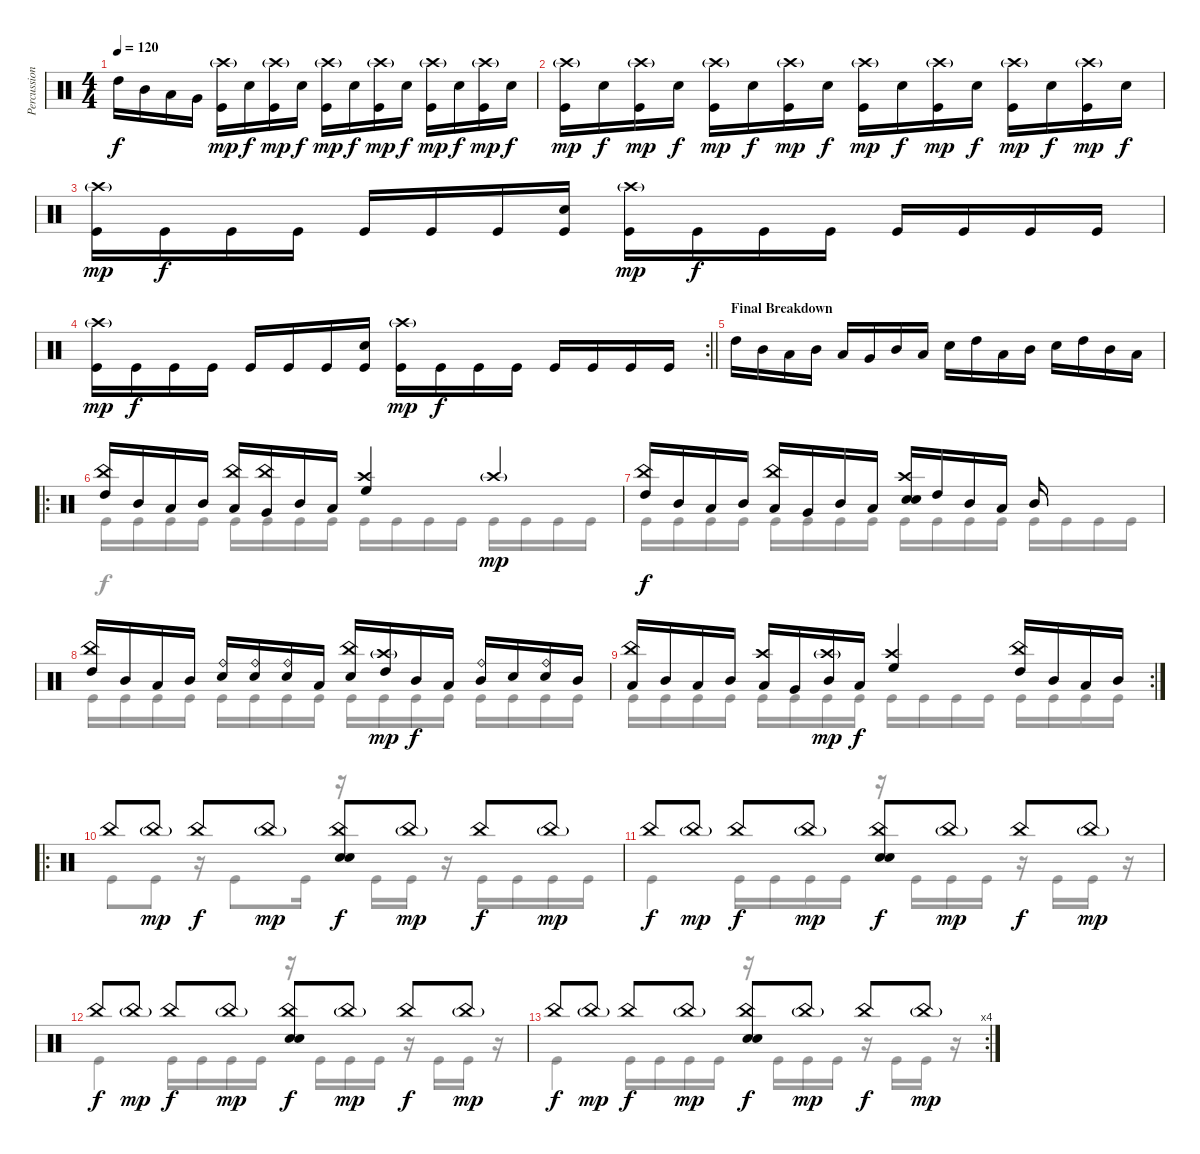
\track ("Percussion" "Percussion") {instrument percussion}
\staff {score}
\articulation defaults
\voice
\ts (4 4)
\tempo 120
\clef neutral
\ks c "High Tom (hit)".16{dy f} "Mid Tom (hit)".16 "Low Tom (hit)".16 "Very Low Tom (hit)".16
("Crash high (hit)"{g} "Kick (hit)").16{dy mp} "Electric Snare (hit)".16{dy f} ("Crash high (hit)"{g} "Kick (hit)").16{dy mp} "Electric Snare (hit)".16{dy f} ("Crash high (hit)"{g} "Kick (hit)").16{dy mp} "Electric Snare (hit)".16{dy f} ("Crash high (hit)"{g} "Kick (hit)").16{dy mp} "Electric Snare (hit)".16{dy f} ("Crash high (hit)"{g} "Kick (hit)").16{dy mp} "Electric Snare (hit)".16{dy f} ("Crash high (hit)"{g} "Kick (hit)").16{dy mp} "Electric Snare (hit)".16{dy f} |
("Crash high (hit)"{g} "Kick (hit)").16{dy mp} "Electric Snare (hit)".16{dy f} ("Crash high (hit)"{g} "Kick (hit)").16{dy mp} "Electric Snare (hit)".16{dy f} ("Crash high (hit)"{g} "Kick (hit)").16{dy mp} "Electric Snare (hit)".16{dy f} ("Crash high (hit)"{g} "Kick (hit)").16{dy mp} "Electric Snare (hit)".16{dy f} ("Crash high (hit)"{g} "Kick (hit)").16{dy mp} "Electric Snare (hit)".16{dy f} ("Crash high (hit)"{g} "Kick (hit)").16{dy mp} "Electric Snare (hit)".16{dy f} ("Crash high (hit)"{g} "Kick (hit)").16{dy mp} "Electric Snare (hit)".16{dy f} ("Crash high (hit)"{g} "Kick (hit)").16{dy mp} "Electric Snare (hit)".16{dy f} |
("Crash high (hit)"{g} "Kick (hit)").16{dy mp} "Kick (hit)".16{dy f} "Kick (hit)".16 "Kick (hit)".16 "Kick (hit)".16 "Kick (hit)".16 "Kick (hit)".16 ("Electric Snare (hit)" "Kick (hit)").16 ("Crash high (hit)"{g} "Kick (hit)").16{dy mp} "Kick (hit)".16{dy f} "Kick (hit)".16 "Kick (hit)".16 "Kick (hit)".16 "Kick (hit)".16 "Kick (hit)".16 "Kick (hit)".16 |
\rc 2
\barLineRight lightlight
("Crash high (hit)"{g} "Kick (hit)").16{dy mp} "Kick (hit)".16{dy f} "Kick (hit)".16 "Kick (hit)".16 "Kick (hit)".16 "Kick (hit)".16 "Kick (hit)".16 ("Electric Snare (hit)" "Kick (hit)").16 ("Crash high (hit)"{g} "Kick (hit)").16{dy mp} "Kick (hit)".16{dy f} "Kick (hit)".16 "Kick (hit)".16 "Kick (hit)".16 "Kick (hit)".16 "Kick (hit)".16 "Kick (hit)".16 |
\section ("" "Final Breakdown")
"High Tom (hit)".16 "Mid Tom (hit)".16 "Low Tom (hit)".16 "Mid Tom (hit)".16 "Low Tom (hit)".16 "Very Low Tom (hit)".16 "Mid Tom (hit)".16 "Low Tom (hit)".16 "Electric Snare (hit)".16 "High Tom (hit)".16 "Low Tom (hit)".16 "Mid Tom (hit)".16 "Electric Snare (hit)".16 "High Tom (hit)".16 "Mid Tom (hit)".16 "Low Tom (hit)".16 |
\ro
("China (hit)" "High Tom (hit)").16 "Mid Tom (hit)".16 "Low Tom (hit)".16 "Mid Tom (hit)".16 ("China (hit)" "Low Tom (hit)").16 ("China (hit)" "Very Low Tom (hit)").16 "Mid Tom (hit)".16 "Low Tom (hit)".16 ("Crash high (hit)" "High Floor Tom (hit)").4 "Crash high (hit)"{g}.4{dy mp} |
("China (hit)" "High Tom (hit)").16{dy f} "Mid Tom (hit)".16 "Low Tom (hit)".16 "Mid Tom (hit)".16 ("China (hit)" "Low Tom (hit)").16 "Very Low Tom (hit)".16 "Mid Tom (hit)".16 "Low Tom (hit)".16 ("Crash high (hit)" "Electric Snare (hit)" "Electric Snare (hit)").16 "High Tom (hit)".16 "Mid Tom (hit)".16 "Low Tom (hit)".16 "Mid Tom (hit)".16 |
("China (hit)" "High Tom (hit)").16 "Mid Tom (hit)".16 "Low Tom (hit)".16 "Mid Tom (hit)".16 ("Ride (bell)" "Electric Snare (hit)").16 ("Ride (bell)" "Electric Snare (hit)").16 ("Ride (bell)" "Electric Snare (hit)").16 "Low Tom (hit)".16 ("China (hit)" "Electric Snare (hit)").16 ("Crash high (hit)"{g} "High Tom (hit)").16{dy mp} "Mid Tom (hit)".16{dy f} "Low Tom (hit)".16 ("Ride (bell)" "Mid Tom (hit)").16 "Electric Snare (hit)".16 ("Ride (bell)" "Electric Snare (hit)").16 "Mid Tom (hit)".16 |
\rc 2
("China (hit)" "Low Tom (hit)").16 "Mid Tom (hit)".16 "Low Tom (hit)".16 "Mid Tom (hit)".16 ("Crash high (hit)" "Low Tom (hit)").16 "Very Low Tom (hit)".16 ("Crash high (hit)"{g} "Mid Tom (hit)").16{dy mp} "Low Tom (hit)".16{dy f} ("Crash high (hit)" "High Floor Tom (hit)").4 ("China (hit)" "High Tom (hit)").16 "Mid Tom (hit)".16 "Low Tom (hit)".16 "Mid Tom (hit)".16 |
\ro "China (hit)".8 "China (hit)"{g}.8{dy mp} "China (hit)".8{dy f} "China (hit)"{g}.8{dy mp}
("China (hit)" "Electric Snare (hit)" "Electric Snare (hit)").8{dy f} "China (hit)"{g}.8{dy mp} "China (hit)".8{dy f} "China (hit)"{g}.8{dy mp} |
"China (hit)".8{dy f} "China (hit)"{g}.8{dy mp} "China (hit)".8{dy f} "China (hit)"{g}.8{dy mp} ("China (hit)" "Electric Snare (hit)" "Electric Snare (hit)").8{dy f} "China (hit)"{g}.8{dy mp} "China (hit)".8{dy f} "China (hit)"{g}.8{dy mp} |
"China (hit)".8{dy f} "China (hit)"{g}.8{dy mp} "China (hit)".8{dy f} "China (hit)"{g}.8{dy mp} ("China (hit)" "Electric Snare (hit)" "Electric Snare (hit)").8{dy f} "China (hit)"{g}.8{dy mp} "China (hit)".8{dy f} "China (hit)"{g}.8{dy mp} |
\rc 4 "China (hit)".8{dy f} "China (hit)"{g}.8{dy mp} "China (hit)".8{dy f} "China (hit)"{g}.8{dy mp}
("China (hit)" "Electric Snare (hit)" "Electric Snare (hit)").8{dy f} "China (hit)"{g}.8{dy mp} "China (hit)".8{dy f} "China (hit)"{g}.8{dy mp} |
\voice
\clef neutral
\ottava regular
\simile none
\ks c
|
|
|
\barLineRight lightlight
|
|
"Kick (hit)".16{dy f} "Kick (hit)".16 "Kick (hit)".16 "Kick (hit)".16 "Kick (hit)".16 "Kick (hit)".16 "Kick (hit)".16 "Kick (hit)".16 "Kick (hit)".16 "Kick (hit)".16 "Kick (hit)".16 "Kick (hit)".16 "Kick (hit)".16 "Kick (hit)".16 "Kick (hit)".16 "Kick (hit)".16 |
"Kick (hit)".16 "Kick (hit)".16 "Kick (hit)".16 "Kick (hit)".16 "Kick (hit)".16 "Kick (hit)".16 "Kick (hit)".16 "Kick (hit)".16 "Kick (hit)".16 "Kick (hit)".16 "Kick (hit)".16 "Kick (hit)".16 "Kick (hit)".16 "Kick (hit)".16 "Kick (hit)".16 "Kick (hit)".16 |
"Kick (hit)".16 "Kick (hit)".16 "Kick (hit)".16 "Kick (hit)".16 "Kick (hit)".16 "Kick (hit)".16 "Kick (hit)".16 "Kick (hit)".16 "Kick (hit)".16 "Kick (hit)".16 "Kick (hit)".16 "Kick (hit)".16 "Kick (hit)".16 "Kick (hit)".16 "Kick (hit)".16 "Kick (hit)".16 |
"Kick (hit)".16 "Kick (hit)".16 "Kick (hit)".16 "Kick (hit)".16 "Kick (hit)".16 "Kick (hit)".16 "Kick (hit)".16 "Kick (hit)".16 "Kick (hit)".16 "Kick (hit)".16 "Kick (hit)".16 "Kick (hit)".16 "Kick (hit)".16 "Kick (hit)".16 "Kick (hit)".16 "Kick (hit)".16 |
"Kick (hit)".8 "Kick (hit)".8 r.16 "Kick (hit)".8 "Kick (hit)".16 r.16 "Kick (hit)".16 "Kick (hit)".16 r.16 "Kick (hit)".16 "Kick (hit)".16 "Kick (hit)".16 "Kick (hit)".16 |
"Kick (hit)".4 "Kick (hit)".16 "Kick (hit)".16 "Kick (hit)".16 "Kick (hit)".16 r.16 "Kick (hit)".16 "Kick (hit)".16 "Kick (hit)".16 r.16 "Kick (hit)".16 "Kick (hit)".16 r.16 |
"Kick (hit)".4 "Kick (hit)".16 "Kick (hit)".16 "Kick (hit)".16 "Kick (hit)".16 r.16 "Kick (hit)".16 "Kick (hit)".16 "Kick (hit)".16 r.16 "Kick (hit)".16 "Kick (hit)".16 r.16 |
"Kick (hit)".4 "Kick (hit)".16 "Kick (hit)".16 "Kick (hit)".16 "Kick (hit)".16 r.16 "Kick (hit)".16 "Kick (hit)".16 "Kick (hit)".16 r.16 "Kick (hit)".16 "Kick (hit)".16 r.16 |
